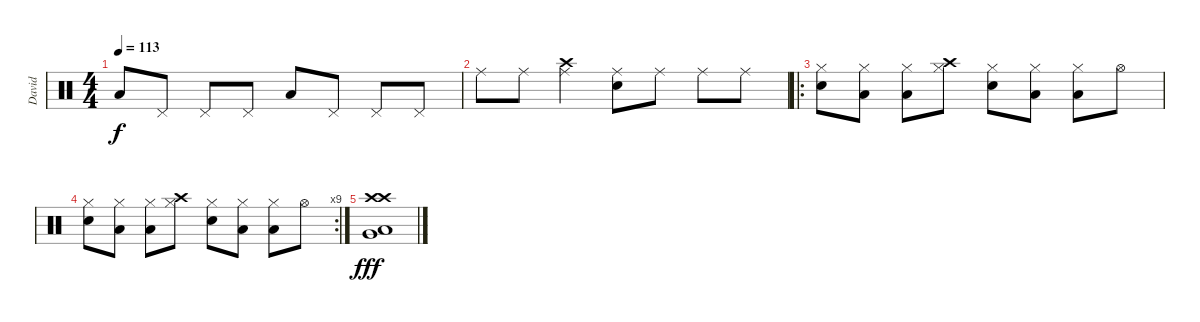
\track ("David" "David") {instrument percussion}
\staff {score}
\articulation defaults
\ts (4 4)
\tempo 113
\clef neutral
\ks c "Low Tom (hit)".8{dy f} "Pedal Hi-Hat (hit)".8 "Pedal Hi-Hat (hit)".8 "Pedal Hi-Hat (hit)".8 "Low Tom (hit)".8 "Pedal Hi-Hat (hit)".8 "Pedal Hi-Hat (hit)".8 "Pedal Hi-Hat (hit)".8
|
"Ride (middle)".8 "Ride (middle)".8 ("Crash high (hit)" "Ride (middle)").4 ("Electric Snare (hit)" "Ride (middle)").8 "Ride (middle)".8 "Ride (middle)".8 "Ride (middle)".8 |
\ro
("Hi-Hat (closed)" "Electric Snare (hit)").8 ("Hi-Hat (closed)" "Low Tom (hit)").8 ("Hi-Hat (closed)" "Low Tom (hit)").8 ("Crash high (hit)" "Hi-Hat (closed)").8 ("Hi-Hat (closed)" "Electric Snare (hit)").8 ("Hi-Hat (closed)" "Low Tom (hit)").8 ("Hi-Hat (closed)" "Low Tom (hit)").8 "Hi-Hat (open)".8 |
\rc 9
("Hi-Hat (closed)" "Electric Snare (hit)").8 ("Hi-Hat (closed)" "Low Tom (hit)").8 ("Hi-Hat (closed)" "Low Tom (hit)").8 ("Crash high (hit)" "Hi-Hat (closed)").8 ("Hi-Hat (closed)" "Electric Snare (hit)").8 ("Hi-Hat (closed)" "Low Tom (hit)").8 ("Hi-Hat (closed)" "Low Tom (hit)").8 "Hi-Hat (open)".8 |
("Crash high (hit)" "Crash high (hit)" "Low Tom (hit)" "Very Low Tom (hit)").1{dy fff}
